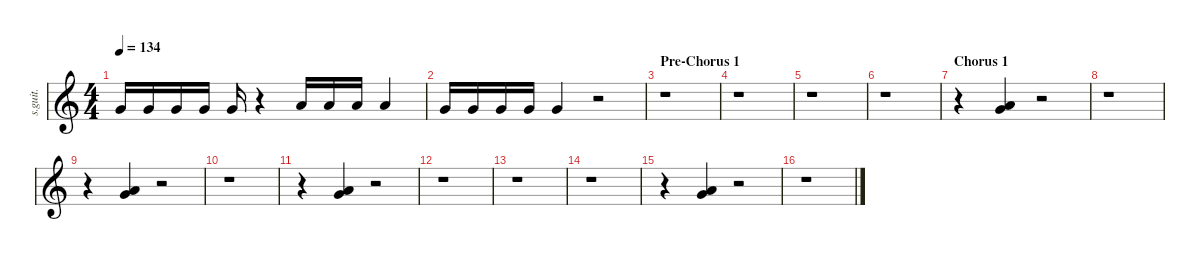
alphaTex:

\defaultSystemsLayout 4
\hideDynamics
\bracketExtendMode nobrackets
\track ("Shawn Crahan" "s.guit.") {instrument percussion}
\staff {score}
\articulation defaults
\ts (4 4)
\tempo 134
\clef g2
\ks c "Very Low Tom (hit)".16{dy f} "Very Low Tom (hit)".16 "Very Low Tom (hit)".16 "Very Low Tom (hit)".16 "Very Low Tom (hit)".16
r.4 "Low Floor Tom (hit)".16 "Low Floor Tom (hit)".16 "Low Floor Tom (hit)".16 "Low Floor Tom (hit)".4 |
"Very Low Tom (hit)".16 "Very Low Tom (hit)".16 "Very Low Tom (hit)".16 "Very Low Tom (hit)".16 "Very Low Tom (hit)".4 r.2 |
\section ("" "Pre-Chorus 1")
r.1 |
r.1 |
r.1 |
r.1 |
\section ("" "Chorus 1")
r.4 ("Very Low Tom (hit)" "Low Floor Tom (hit)").4 r.2 |
r.1 |
r.4 ("Very Low Tom (hit)" "Low Floor Tom (hit)").4 r.2 |
r.1 |
r.4 ("Very Low Tom (hit)" "Low Floor Tom (hit)").4 r.2 |
r.1 |
r.1 |
r.1 |
r.4 ("Very Low Tom (hit)" "Low Floor Tom (hit)").4 r.2 |
r.1
